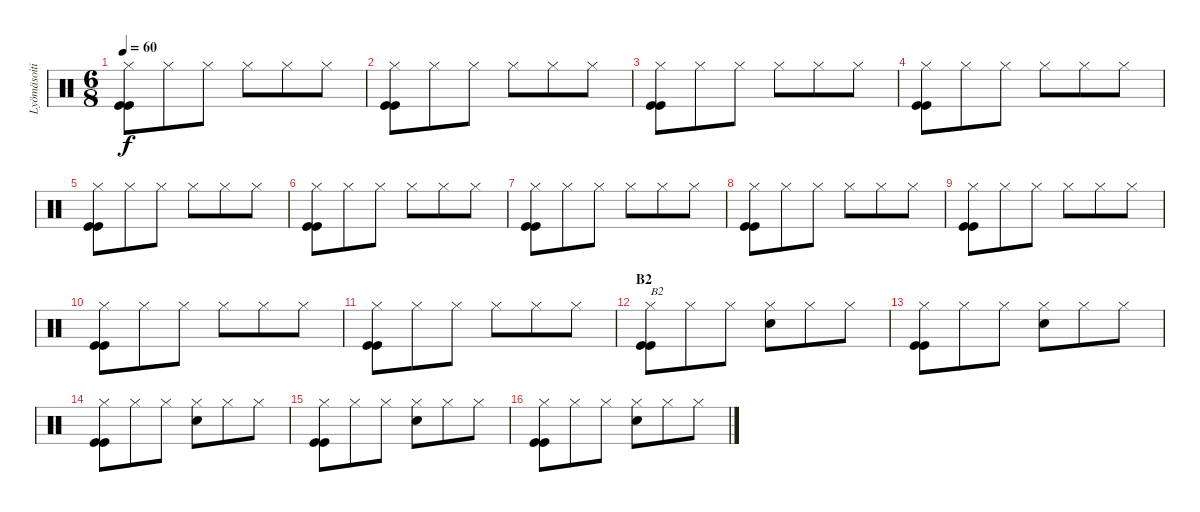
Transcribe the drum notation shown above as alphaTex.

\track ("Lyömäsoitin" "Lyömäsoiti") {instrument percussion}
\staff {score}
\articulation defaults
\ts (6 8)
\tempo 60
\clef neutral
\ks c
("Hi-Hat (closed)" "Kick (hit)" "Kick (hit)").8{dy f} "Hi-Hat (closed)".8 "Hi-Hat (closed)".8 "Hi-Hat (closed)".8 "Hi-Hat (closed)".8 "Hi-Hat (closed)".8 |
("Hi-Hat (closed)" "Kick (hit)" "Kick (hit)").8 "Hi-Hat (closed)".8 "Hi-Hat (closed)".8 "Hi-Hat (closed)".8 "Hi-Hat (closed)".8 "Hi-Hat (closed)".8 |
("Hi-Hat (closed)" "Kick (hit)" "Kick (hit)").8 "Hi-Hat (closed)".8 "Hi-Hat (closed)".8 "Hi-Hat (closed)".8 "Hi-Hat (closed)".8 "Hi-Hat (closed)".8 |
("Hi-Hat (closed)" "Kick (hit)" "Kick (hit)").8 "Hi-Hat (closed)".8 "Hi-Hat (closed)".8 "Hi-Hat (closed)".8 "Hi-Hat (closed)".8 "Hi-Hat (closed)".8 |
("Hi-Hat (closed)" "Kick (hit)" "Kick (hit)").8 "Hi-Hat (closed)".8 "Hi-Hat (closed)".8 "Hi-Hat (closed)".8 "Hi-Hat (closed)".8 "Hi-Hat (closed)".8 |
("Hi-Hat (closed)" "Kick (hit)" "Kick (hit)").8 "Hi-Hat (closed)".8 "Hi-Hat (closed)".8 "Hi-Hat (closed)".8 "Hi-Hat (closed)".8 "Hi-Hat (closed)".8 |
("Hi-Hat (closed)" "Kick (hit)" "Kick (hit)").8 "Hi-Hat (closed)".8 "Hi-Hat (closed)".8 "Hi-Hat (closed)".8 "Hi-Hat (closed)".8 "Hi-Hat (closed)".8 |
("Hi-Hat (closed)" "Kick (hit)" "Kick (hit)").8 "Hi-Hat (closed)".8 "Hi-Hat (closed)".8 "Hi-Hat (closed)".8 "Hi-Hat (closed)".8 "Hi-Hat (closed)".8 |
("Hi-Hat (closed)" "Kick (hit)" "Kick (hit)").8 "Hi-Hat (closed)".8 "Hi-Hat (closed)".8 "Hi-Hat (closed)".8 "Hi-Hat (closed)".8 "Hi-Hat (closed)".8 |
("Hi-Hat (closed)" "Kick (hit)" "Kick (hit)").8 "Hi-Hat (closed)".8 "Hi-Hat (closed)".8 "Hi-Hat (closed)".8 "Hi-Hat (closed)".8 "Hi-Hat (closed)".8 |
("Hi-Hat (closed)" "Kick (hit)" "Kick (hit)").8 "Hi-Hat (closed)".8 "Hi-Hat (closed)".8 "Hi-Hat (closed)".8 "Hi-Hat (closed)".8 "Hi-Hat (closed)".8 |
\section ("" "B2")
("Hi-Hat (closed)" "Kick (hit)" "Kick (hit)").8{txt "B2"} "Hi-Hat (closed)".8 "Hi-Hat (closed)".8 ("Hi-Hat (closed)" "Snare (hit) 2").8 "Hi-Hat (closed)".8 "Hi-Hat (closed)".8 |
("Hi-Hat (closed)" "Kick (hit)" "Kick (hit)").8 "Hi-Hat (closed)".8 "Hi-Hat (closed)".8 ("Hi-Hat (closed)" "Snare (hit) 2").8 "Hi-Hat (closed)".8 "Hi-Hat (closed)".8 |
("Hi-Hat (closed)" "Kick (hit)" "Kick (hit)").8 "Hi-Hat (closed)".8 "Hi-Hat (closed)".8 ("Hi-Hat (closed)" "Snare (hit) 2").8 "Hi-Hat (closed)".8 "Hi-Hat (closed)".8 |
("Hi-Hat (closed)" "Kick (hit)" "Kick (hit)").8 "Hi-Hat (closed)".8 "Hi-Hat (closed)".8 ("Hi-Hat (closed)" "Snare (hit) 2").8 "Hi-Hat (closed)".8 "Hi-Hat (closed)".8 |
("Hi-Hat (closed)" "Kick (hit)" "Kick (hit)").8 "Hi-Hat (closed)".8 "Hi-Hat (closed)".8 ("Hi-Hat (closed)" "Snare (hit) 2").8 "Hi-Hat (closed)".8 "Hi-Hat (closed)".8
